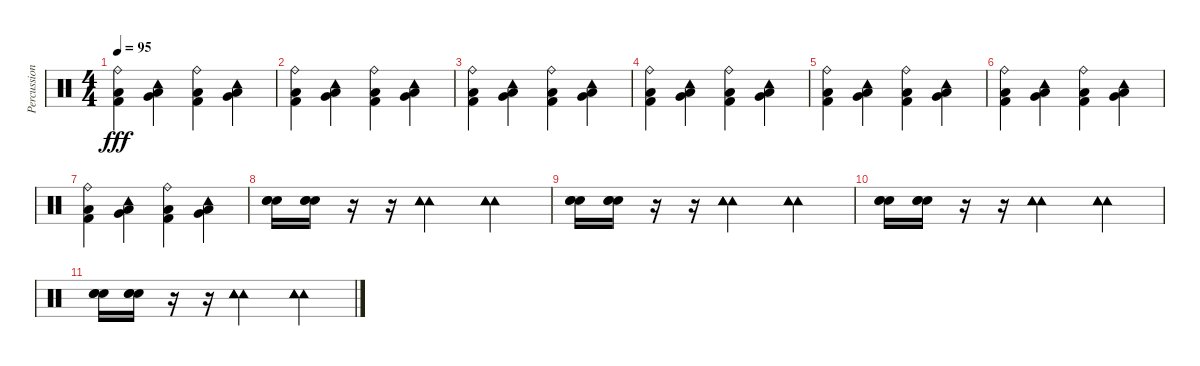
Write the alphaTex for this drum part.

\track ("Percussion" "Percussion") {instrument percussion}
\staff {score}
\articulation defaults
\ts (4 4)
\tempo 95
\clef neutral
\ks c
("Low Floor Tom (hit)" "Kick (hit) 2" "Ride (bell)").4{dy fff} ("Very Low Tom (hit)" "Low Floor Tom (hit)" "Tambourine (hit)").4 ("Low Floor Tom (hit)" "Kick (hit) 2" "Ride (bell)").4 ("Very Low Tom (hit)" "Low Floor Tom (hit)" "Tambourine (hit)").4 |
("Low Floor Tom (hit)" "Kick (hit) 2" "Ride (bell)").4 ("Very Low Tom (hit)" "Low Floor Tom (hit)" "Tambourine (hit)").4 ("Low Floor Tom (hit)" "Kick (hit) 2" "Ride (bell)").4 ("Very Low Tom (hit)" "Low Floor Tom (hit)" "Tambourine (hit)").4 |
("Low Floor Tom (hit)" "Kick (hit) 2" "Ride (bell)").4 ("Very Low Tom (hit)" "Low Floor Tom (hit)" "Tambourine (hit)").4 ("Low Floor Tom (hit)" "Kick (hit) 2" "Ride (bell)").4 ("Very Low Tom (hit)" "Low Floor Tom (hit)" "Tambourine (hit)").4 |
("Low Floor Tom (hit)" "Kick (hit) 2" "Ride (bell)").4 ("Very Low Tom (hit)" "Low Floor Tom (hit)" "Tambourine (hit)").4 ("Low Floor Tom (hit)" "Kick (hit) 2" "Ride (bell)").4 ("Very Low Tom (hit)" "Low Floor Tom (hit)" "Tambourine (hit)").4 |
("Low Floor Tom (hit)" "Kick (hit) 2" "Ride (bell)").4 ("Very Low Tom (hit)" "Low Floor Tom (hit)" "Tambourine (hit)").4 ("Low Floor Tom (hit)" "Kick (hit) 2" "Ride (bell)").4 ("Very Low Tom (hit)" "Low Floor Tom (hit)" "Tambourine (hit)").4 |
("Low Floor Tom (hit)" "Kick (hit) 2" "Ride (bell)").4 ("Very Low Tom (hit)" "Low Floor Tom (hit)" "Tambourine (hit)").4 ("Low Floor Tom (hit)" "Kick (hit) 2" "Ride (bell)").4 ("Very Low Tom (hit)" "Low Floor Tom (hit)" "Tambourine (hit)").4 |
("Low Floor Tom (hit)" "Kick (hit) 2" "Ride (bell)").4 ("Very Low Tom (hit)" "Low Floor Tom (hit)" "Tambourine (hit)").4 ("Low Floor Tom (hit)" "Kick (hit) 2" "Ride (bell)").4 ("Very Low Tom (hit)" "Low Floor Tom (hit)" "Tambourine (hit)").4 |
("Electric Snare (hit)" "Electric Snare (hit)" "Electric Snare (hit)").16 ("Electric Snare (hit)" "Electric Snare (hit)" "Electric Snare (hit)").16 r.16 r.16 ("Tambourine (hit)" "Tambourine (hit)" "Tambourine (hit)").2 ("Tambourine (hit)" "Tambourine (hit)" "Tambourine (hit)").4 |
("Electric Snare (hit)" "Electric Snare (hit)" "Electric Snare (hit)").16 ("Electric Snare (hit)" "Electric Snare (hit)" "Electric Snare (hit)").16 r.16 r.16 ("Tambourine (hit)" "Tambourine (hit)" "Tambourine (hit)").2 ("Tambourine (hit)" "Tambourine (hit)" "Tambourine (hit)").4 |
("Electric Snare (hit)" "Electric Snare (hit)" "Electric Snare (hit)").16 ("Electric Snare (hit)" "Electric Snare (hit)" "Electric Snare (hit)").16 r.16 r.16 ("Tambourine (hit)" "Tambourine (hit)" "Tambourine (hit)").2 ("Tambourine (hit)" "Tambourine (hit)" "Tambourine (hit)").4 |
("Electric Snare (hit)" "Electric Snare (hit)" "Electric Snare (hit)").16 ("Electric Snare (hit)" "Electric Snare (hit)" "Electric Snare (hit)").16 r.16 r.16 ("Tambourine (hit)" "Tambourine (hit)" "Tambourine (hit)").2 ("Tambourine (hit)" "Tambourine (hit)" "Tambourine (hit)").4
